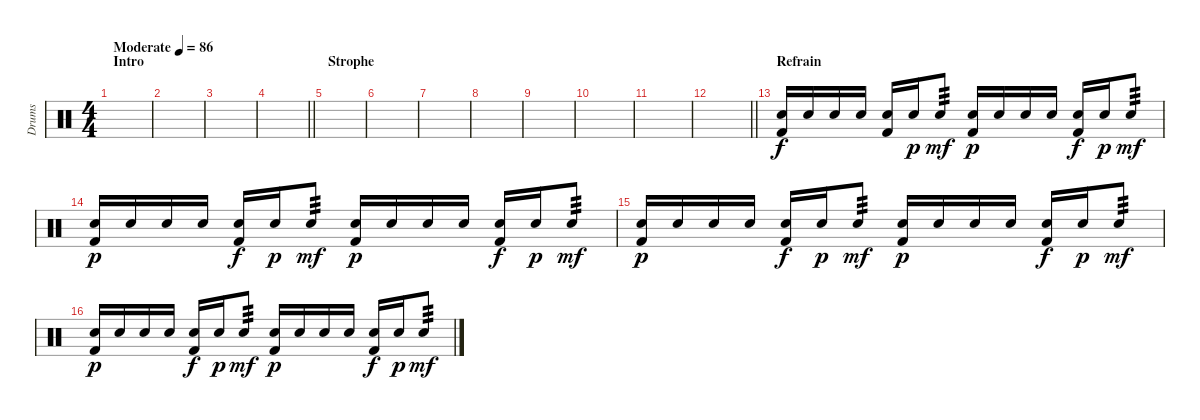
\track ("Drums" "Drums") {instrument percussion}
\staff {score}
\articulation defaults
\ts (4 4)
\section ("" "Intro")
\tempo (86 "Moderate")
\clef neutral
\ks c
|
|
|
\barLineRight lightlight
|
\section ("" "Strophe")
|
|
|
|
|
|
|
\barLineRight lightlight
|
\section ("" "Refrain")
("Snare (hit) 2" "Kick (hit) 2").16 "Snare (hit) 2".16 "Snare (hit) 2".16 "Snare (hit) 2".16 ("Snare (hit) 2" "Kick (hit) 2").16{dy f} "Snare (hit) 2".16{dy p} "Snare (hit) 2".8{tp 3 dy mf} ("Snare (hit) 2" "Kick (hit) 2").16{dy p} "Snare (hit) 2".16 "Snare (hit) 2".16 "Snare (hit) 2".16 ("Snare (hit) 2" "Kick (hit) 2").16{dy f} "Snare (hit) 2".16{dy p} "Snare (hit) 2".8{tp 3 dy mf} |
("Snare (hit) 2" "Kick (hit) 2").16{dy p} "Snare (hit) 2".16 "Snare (hit) 2".16 "Snare (hit) 2".16 ("Snare (hit) 2" "Kick (hit) 2").16{dy f} "Snare (hit) 2".16{dy p} "Snare (hit) 2".8{tp 3 dy mf} ("Snare (hit) 2" "Kick (hit) 2").16{dy p} "Snare (hit) 2".16 "Snare (hit) 2".16 "Snare (hit) 2".16 ("Snare (hit) 2" "Kick (hit) 2").16{dy f} "Snare (hit) 2".16{dy p} "Snare (hit) 2".8{tp 3 dy mf} |
("Snare (hit) 2" "Kick (hit) 2").16{dy p} "Snare (hit) 2".16 "Snare (hit) 2".16 "Snare (hit) 2".16 ("Snare (hit) 2" "Kick (hit) 2").16{dy f} "Snare (hit) 2".16{dy p} "Snare (hit) 2".8{tp 3 dy mf} ("Snare (hit) 2" "Kick (hit) 2").16{dy p} "Snare (hit) 2".16 "Snare (hit) 2".16 "Snare (hit) 2".16 ("Snare (hit) 2" "Kick (hit) 2").16{dy f} "Snare (hit) 2".16{dy p} "Snare (hit) 2".8{tp 3 dy mf} |
("Snare (hit) 2" "Kick (hit) 2").16{dy p} "Snare (hit) 2".16 "Snare (hit) 2".16 "Snare (hit) 2".16 ("Snare (hit) 2" "Kick (hit) 2").16{dy f} "Snare (hit) 2".16{dy p} "Snare (hit) 2".8{tp 3 dy mf} ("Snare (hit) 2" "Kick (hit) 2").16{dy p} "Snare (hit) 2".16 "Snare (hit) 2".16 "Snare (hit) 2".16 ("Snare (hit) 2" "Kick (hit) 2").16{dy f} "Snare (hit) 2".16{dy p} "Snare (hit) 2".8{tp 3 dy mf}
